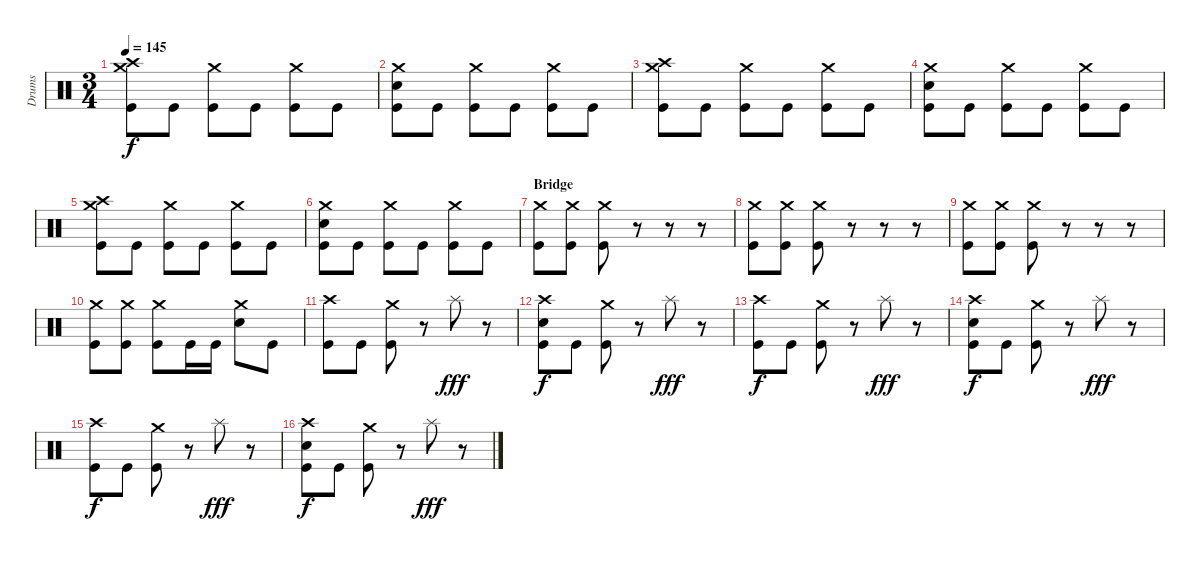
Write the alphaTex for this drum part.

\track ("Drums" "Drums") {instrument percussion}
\staff {score}
\articulation defaults
\ts (3 4)
\tempo 145
\clef neutral
\ks c
("Crash high (hit)" "Crash medium (hit)" "Kick (hit)").8{dy f} "Kick (hit)".8 ("Crash medium (hit)" "Kick (hit)").8 "Kick (hit)".8 ("Crash medium (hit)" "Kick (hit)").8 "Kick (hit)".8 |
("Crash medium (hit)" "Electric Snare (hit)" "Kick (hit)").8 "Kick (hit)".8 ("Crash medium (hit)" "Kick (hit)").8 "Kick (hit)".8 ("Crash medium (hit)" "Kick (hit)").8 "Kick (hit)".8 |
("Crash high (hit)" "Crash medium (hit)" "Kick (hit)").8 "Kick (hit)".8 ("Crash medium (hit)" "Kick (hit)").8 "Kick (hit)".8 ("Crash medium (hit)" "Kick (hit)").8 "Kick (hit)".8 |
("Crash medium (hit)" "Electric Snare (hit)" "Kick (hit)").8 "Kick (hit)".8 ("Crash medium (hit)" "Kick (hit)").8 "Kick (hit)".8 ("Crash medium (hit)" "Kick (hit)").8 "Kick (hit)".8 |
("Crash high (hit)" "Crash medium (hit)" "Kick (hit)").8 "Kick (hit)".8 ("Crash medium (hit)" "Kick (hit)").8 "Kick (hit)".8 ("Crash medium (hit)" "Kick (hit)").8 "Kick (hit)".8 |
("Crash medium (hit)" "Electric Snare (hit)" "Kick (hit)").8 "Kick (hit)".8 ("Crash medium (hit)" "Kick (hit)").8 "Kick (hit)".8 ("Crash medium (hit)" "Kick (hit)").8 "Kick (hit)".8 |
\section ("" "Bridge")
("Crash medium (hit)" "Kick (hit)").8 ("Crash medium (hit)" "Kick (hit)").8 ("Crash medium (hit)" "Kick (hit)").8 r.8 r.8 r.8 |
("Crash medium (hit)" "Kick (hit)").8 ("Crash medium (hit)" "Kick (hit)").8 ("Crash medium (hit)" "Kick (hit)").8 r.8 r.8 r.8 |
("Crash medium (hit)" "Kick (hit)").8 ("Crash medium (hit)" "Kick (hit)").8 ("Crash medium (hit)" "Kick (hit)").8 r.8 r.8 r.8 |
("Crash medium (hit)" "Kick (hit)").8 ("Crash medium (hit)" "Kick (hit)").8 ("Crash medium (hit)" "Kick (hit)").8 "Kick (hit)".16 "Kick (hit)".16 ("Crash medium (hit)" "Electric Snare (hit)").8 "Kick (hit)".8 |
("Crash high (hit)" "Kick (hit)").8 "Kick (hit)".8 ("Crash medium (hit)" "Kick (hit)").8 r.8 "Splash (hit)".8{dy fff} r.8 |
("Crash high (hit)" "Electric Snare (hit)" "Kick (hit)").8{dy f} "Kick (hit)".8 ("Crash medium (hit)" "Kick (hit)").8 r.8 "Splash (hit)".8{dy fff} r.8 |
("Crash high (hit)" "Kick (hit)").8{dy f} "Kick (hit)".8 ("Crash medium (hit)" "Kick (hit)").8 r.8 "Splash (hit)".8{dy fff} r.8 |
("Crash high (hit)" "Electric Snare (hit)" "Kick (hit)").8{dy f} "Kick (hit)".8 ("Crash medium (hit)" "Kick (hit)").8 r.8 "Splash (hit)".8{dy fff} r.8 |
("Crash high (hit)" "Kick (hit)").8{dy f} "Kick (hit)".8 ("Crash medium (hit)" "Kick (hit)").8 r.8 "Splash (hit)".8{dy fff} r.8 |
("Crash high (hit)" "Electric Snare (hit)" "Kick (hit)").8{dy f} "Kick (hit)".8 ("Crash medium (hit)" "Kick (hit)").8 r.8 "Splash (hit)".8{dy fff} r.8
